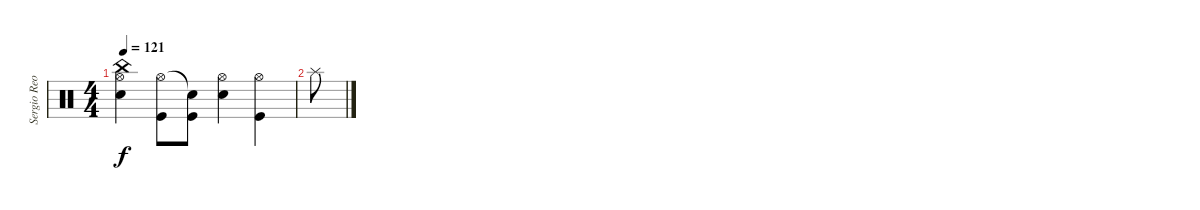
\track ("Sergio Reoli" "Sergio Reo") {instrument percussion}
\staff {score}
\articulation defaults
\ts (4 4)
\tempo 121
\clef neutral
\ks c
("Snare (hit) 2" "Hi-Hat (open)" "China (hit)").4{dy f} ("Hi-Hat (open)" "Kick (hit)").8 ("Snare (hit)"{t} "Kick (hit)").8 ("Snare (hit) 2" "Hi-Hat (open)").4 ("Hi-Hat (open)" "Kick (hit)").4 |
"Splash (hit)".8
